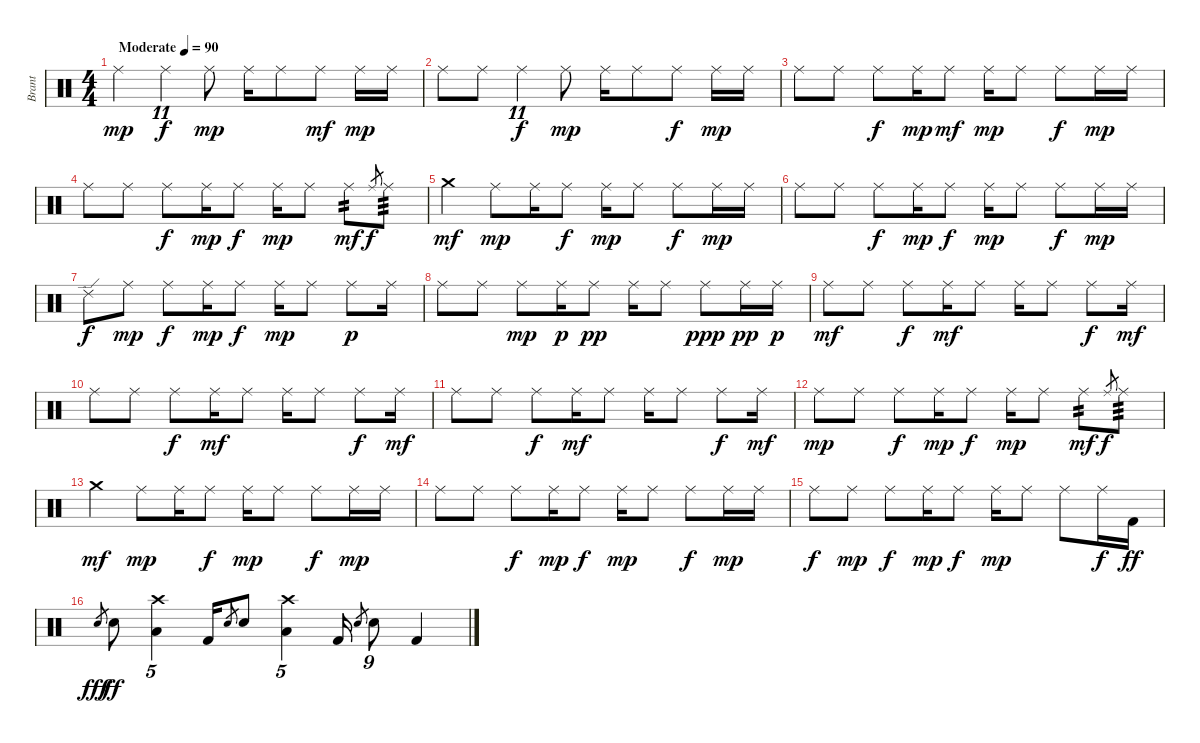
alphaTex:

\track ("Brant" "Brant") {instrument percussion}
\staff {score}
\articulation defaults
\ts (4 4)
\tempo (90 "Moderate")
\clef neutral
\ks c "Ride (middle)".4{dy mp} "Ride (middle)".4{tu (11 8) dy f} "Ride (middle)".8{dy mp} "Ride (middle)".16 "Ride (middle)".8 "Ride (middle)".8{dy mf} "Ride (middle)".16{dy mp} "Ride (middle)".16
|
"Ride (middle)".8 "Ride (middle)".8 "Ride (middle)".4{tu (11 8) dy f} "Ride (middle)".8{dy mp} "Ride (middle)".16 "Ride (middle)".8 "Ride (middle)".8{dy f} "Ride (middle)".16{dy mp} "Ride (middle)".16 |
"Ride (middle)".8 "Ride (middle)".8 "Ride (middle)".8{dy f} "Ride (middle)".16{dy mp} "Ride (middle)".8{dy mf} "Ride (middle)".16{dy mp} "Ride (middle)".8 "Ride (middle)".8{dy f} "Ride (middle)".16{dy mp} "Ride (middle)".16 |
"Ride (middle)".8 "Ride (middle)".8 "Ride (middle)".8{dy f} "Ride (middle)".16{dy mp} "Ride (middle)".8{dy f} "Ride (middle)".16{dy mp} "Ride (middle)".8 "Ride (middle)".8{tp 2 dy mf} "Ride (middle)".8{gr dy f} "Ride (middle)".8{tp 3} |
"Crash medium (hit)".4{dy mf} "Ride (middle)".8{dy mp} "Ride (middle)".16 "Ride (middle)".8{dy f} "Ride (middle)".16{dy mp} "Ride (middle)".8 "Ride (middle)".8{dy f} "Ride (middle)".16{dy mp} "Ride (middle)".16 |
"Ride (middle)".8 "Ride (middle)".8 "Ride (middle)".8{dy f} "Ride (middle)".16{dy mp} "Ride (middle)".8{dy f} "Ride (middle)".16{dy mp} "Ride (middle)".8 "Ride (middle)".8{dy f} "Ride (middle)".16{dy mp} "Ride (middle)".16 |
"Ride (edge) 2".8{dy f} "Ride (middle)".8{dy mp} "Ride (middle)".8{dy f} "Ride (middle)".16{dy mp} "Ride (middle)".8{dy f} "Ride (middle)".16{dy mp} "Ride (middle)".8 "Ride (middle)".8{dy p} "Ride (middle)".16 |
"Ride (middle)".8 "Ride (middle)".8 "Ride (middle)".8{dy mp} "Ride (middle)".16{dy p} "Ride (middle)".8{dy pp} "Ride (middle)".16 "Ride (middle)".8 "Ride (middle)".8{dy ppp} "Ride (middle)".16{dy pp} "Ride (middle)".16{dy p} |
"Ride (middle)".8{dy mf} "Ride (middle)".8 "Ride (middle)".8{dy f} "Ride (middle)".16{dy mf} "Ride (middle)".8 "Ride (middle)".16 "Ride (middle)".8 "Ride (middle)".8{dy f} "Ride (middle)".16{dy mf} |
"Ride (middle)".8 "Ride (middle)".8 "Ride (middle)".8{dy f} "Ride (middle)".16{dy mf} "Ride (middle)".8 "Ride (middle)".16 "Ride (middle)".8 "Ride (middle)".8{dy f} "Ride (middle)".16{dy mf} |
"Ride (middle)".8 "Ride (middle)".8 "Ride (middle)".8{dy f} "Ride (middle)".16{dy mf} "Ride (middle)".8 "Ride (middle)".16 "Ride (middle)".8 "Ride (middle)".8{dy f} "Ride (middle)".16{dy mf} |
"Ride (middle)".8{dy mp} "Ride (middle)".8 "Ride (middle)".8{dy f} "Ride (middle)".16{dy mp} "Ride (middle)".8{dy f} "Ride (middle)".16{dy mp} "Ride (middle)".8 "Ride (middle)".8{tp 2 dy mf} "Ride (middle)".8{gr dy f} "Ride (middle)".8{tp 3} |
"Crash medium (hit)".4{dy mf} "Ride (middle)".8{dy mp} "Ride (middle)".16 "Ride (middle)".8{dy f} "Ride (middle)".16{dy mp} "Ride (middle)".8 "Ride (middle)".8{dy f} "Ride (middle)".16{dy mp} "Ride (middle)".16 |
"Ride (middle)".8 "Ride (middle)".8 "Ride (middle)".8{dy f} "Ride (middle)".16{dy mp} "Ride (middle)".8{dy f} "Ride (middle)".16{dy mp} "Ride (middle)".8 "Ride (middle)".8{dy f} "Ride (middle)".16{dy mp} "Ride (middle)".16 |
"Ride (middle)".8{dy f} "Ride (middle)".8{dy mp} "Ride (middle)".8{dy f} "Ride (middle)".16{dy mp} "Ride (middle)".8{dy f} "Ride (middle)".16{dy mp} "Ride (middle)".8 "Ride (middle)".8 "Ride (middle)".16{dy f} "Kick (hit) 2".16{dy ff} |
"Snare (hit) 2".8{gr dy fff} "Snare (hit) 2".8{dy ff} ("Crash high (hit)" "Low Floor Tom (hit)").4{tu (5 4)} "Kick (hit) 2".16 "Snare (hit) 2".8{gr} "Snare (hit) 2".8 ("Crash high (hit)" "Low Floor Tom (hit)").4{tu (5 4)} "Kick (hit) 2".16 "Snare (hit) 2".8{gr} "Snare (hit) 2".8{tu (9 8)} "Kick (hit) 2".4
